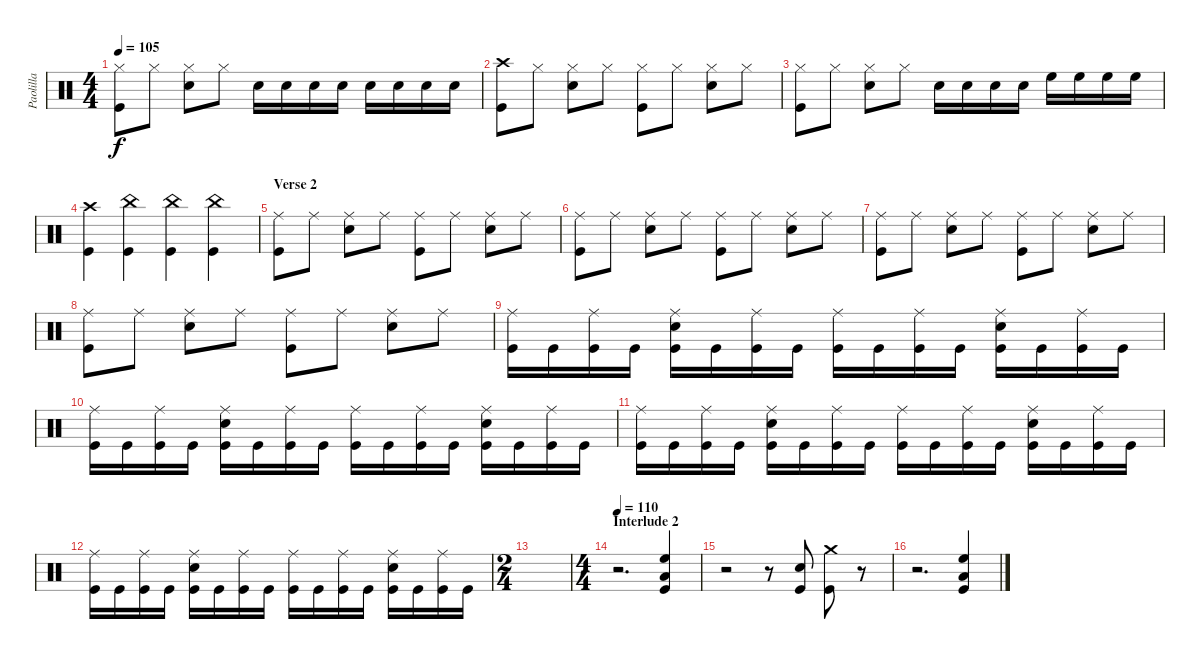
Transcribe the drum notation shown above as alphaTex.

\track ("Paolilla" "Paolilla") {instrument percussion}
\staff {score}
\articulation defaults
\ts (4 4)
\tempo 105
\clef neutral
\ks c
("Hi-Hat (closed)" "Kick (hit)").8{dy f} "Hi-Hat (closed)".8 ("Hi-Hat (closed)" "Snare (hit) 2").8 "Hi-Hat (closed)".8 "Snare (hit) 2".16 "Snare (hit) 2".16 "Snare (hit) 2".16 "Snare (hit) 2".16 "Snare (hit) 2".16 "Snare (hit) 2".16 "Snare (hit) 2".16 "Snare (hit) 2".16 |
("Crash high (hit)" "Kick (hit)").8 "Hi-Hat (closed)".8 ("Hi-Hat (closed)" "Snare (hit) 2").8 "Hi-Hat (closed)".8 ("Hi-Hat (closed)" "Kick (hit)").8 "Hi-Hat (closed)".8 ("Hi-Hat (closed)" "Snare (hit) 2").8 "Hi-Hat (closed)".8 |
("Hi-Hat (closed)" "Kick (hit)").8 "Hi-Hat (closed)".8 ("Hi-Hat (closed)" "Snare (hit) 2").8 "Hi-Hat (closed)".8 "Snare (hit) 2".16 "Snare (hit) 2".16 "Snare (hit) 2".16 "Snare (hit) 2".16 "High Floor Tom (hit)".16 "High Floor Tom (hit)".16 "High Floor Tom (hit)".16 "High Floor Tom (hit)".16 |
("Crash high (hit)" "Kick (hit)").4 ("China (hit)" "Kick (hit)").4 ("China (hit)" "Kick (hit)").4 ("China (hit)" "Kick (hit)").4 |
\section ("" "Verse 2")
("Ride (middle)" "Kick (hit)").8 "Ride (middle)".8 ("Ride (middle)" "Snare (hit) 2").8 "Ride (middle)".8 ("Ride (middle)" "Kick (hit)").8 "Ride (middle)".8 ("Ride (middle)" "Snare (hit) 2").8 "Ride (middle)".8 |
("Ride (middle)" "Kick (hit)").8 "Ride (middle)".8 ("Ride (middle)" "Snare (hit) 2").8 "Ride (middle)".8 ("Ride (middle)" "Kick (hit)").8 "Ride (middle)".8 ("Ride (middle)" "Snare (hit) 2").8 "Ride (middle)".8 |
("Ride (middle)" "Kick (hit)").8 "Ride (middle)".8 ("Ride (middle)" "Snare (hit) 2").8 "Ride (middle)".8 ("Ride (middle)" "Kick (hit)").8 "Ride (middle)".8 ("Ride (middle)" "Snare (hit) 2").8 "Ride (middle)".8 |
("Ride (middle)" "Kick (hit)").8 "Ride (middle)".8 ("Ride (middle)" "Snare (hit) 2").8 "Ride (middle)".8 ("Ride (middle)" "Kick (hit)").8 "Ride (middle)".8 ("Ride (middle)" "Snare (hit) 2").8 "Ride (middle)".8 |
("Ride (middle)" "Kick (hit)").16 "Kick (hit)".16 ("Ride (middle)" "Kick (hit)").16 "Kick (hit)".16 ("Ride (middle)" "Snare (hit) 2" "Kick (hit)").16 "Kick (hit)".16 ("Ride (middle)" "Kick (hit)").16 "Kick (hit)".16 ("Ride (middle)" "Kick (hit)").16 "Kick (hit)".16 ("Ride (middle)" "Kick (hit)").16 "Kick (hit)".16 ("Ride (middle)" "Snare (hit) 2" "Kick (hit)").16 "Kick (hit)".16 ("Ride (middle)" "Kick (hit)").16 "Kick (hit)".16 |
("Ride (middle)" "Kick (hit)").16 "Kick (hit)".16 ("Ride (middle)" "Kick (hit)").16 "Kick (hit)".16 ("Ride (middle)" "Snare (hit) 2" "Kick (hit)").16 "Kick (hit)".16 ("Ride (middle)" "Kick (hit)").16 "Kick (hit)".16 ("Ride (middle)" "Kick (hit)").16 "Kick (hit)".16 ("Ride (middle)" "Kick (hit)").16 "Kick (hit)".16 ("Ride (middle)" "Snare (hit) 2" "Kick (hit)").16 "Kick (hit)".16 ("Ride (middle)" "Kick (hit)").16 "Kick (hit)".16 |
("Ride (middle)" "Kick (hit)").16 "Kick (hit)".16 ("Ride (middle)" "Kick (hit)").16 "Kick (hit)".16 ("Ride (middle)" "Snare (hit) 2" "Kick (hit)").16 "Kick (hit)".16 ("Ride (middle)" "Kick (hit)").16 "Kick (hit)".16 ("Ride (middle)" "Kick (hit)").16 "Kick (hit)".16 ("Ride (middle)" "Kick (hit)").16 "Kick (hit)".16 ("Ride (middle)" "Snare (hit) 2" "Kick (hit)").16 "Kick (hit)".16 ("Ride (middle)" "Kick (hit)").16 "Kick (hit)".16 |
("Ride (middle)" "Kick (hit)").16 "Kick (hit)".16 ("Ride (middle)" "Kick (hit)").16 "Kick (hit)".16 ("Ride (middle)" "Snare (hit) 2" "Kick (hit)").16 "Kick (hit)".16 ("Ride (middle)" "Kick (hit)").16 "Kick (hit)".16 ("Ride (middle)" "Kick (hit)").16 "Kick (hit)".16 ("Ride (middle)" "Kick (hit)").16 "Kick (hit)".16 ("Ride (middle)" "Snare (hit) 2" "Kick (hit)").16 "Kick (hit)".16 ("Ride (middle)" "Kick (hit)").16 "Kick (hit)".16 |
\ts (2 4)
|
\ts (4 4)
\section ("" "Interlude 2")
\tempo 110
r.2{d} ("Kick (hit)" "Low Tom (hit)" "High Floor Tom (hit)").4 |
r.2 r.8 ("Snare (hit) 2" "Kick (hit)").8 ("Crash medium (hit)" "Kick (hit)").8 r.8 |
r.2{d} ("Kick (hit)" "Low Tom (hit)" "High Floor Tom (hit)").4
